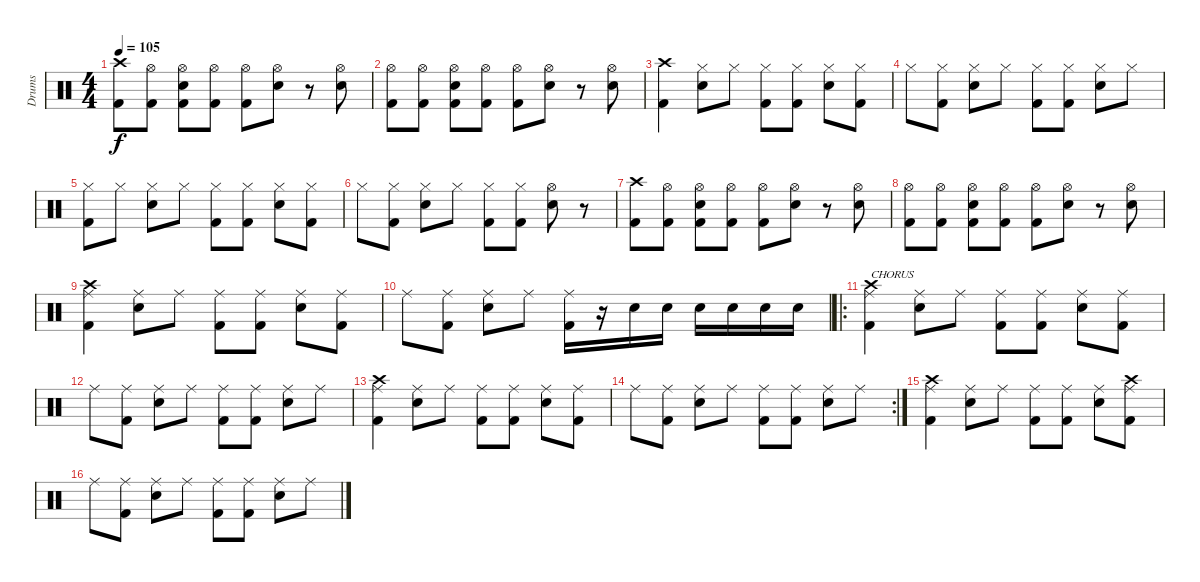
\track ("Drums" "Drums") {instrument percussion}
\staff {score}
\articulation defaults
\ts (4 4)
\tempo 105
\clef neutral
\ks c
("Crash high (hit)" "Kick (hit) 2").8{dy f} ("Hi-Hat (open)" "Kick (hit) 2").8 ("Hi-Hat (open)" "Electric Snare (hit)" "Kick (hit) 2").8 ("Hi-Hat (open)" "Kick (hit) 2").8 ("Hi-Hat (open)" "Kick (hit) 2").8 ("Hi-Hat (open)" "Electric Snare (hit)").8 r.8 ("Hi-Hat (open)" "Electric Snare (hit)").8 |
("Hi-Hat (open)" "Kick (hit) 2").8 ("Hi-Hat (open)" "Kick (hit) 2").8 ("Hi-Hat (open)" "Electric Snare (hit)" "Kick (hit) 2").8 ("Hi-Hat (open)" "Kick (hit) 2").8 ("Hi-Hat (open)" "Kick (hit) 2").8 ("Hi-Hat (open)" "Electric Snare (hit)").8 r.8 ("Hi-Hat (open)" "Electric Snare (hit)").8 |
("Crash high (hit)" "Kick (hit) 2").4 ("Hi-Hat (closed)" "Electric Snare (hit)").8 "Hi-Hat (closed)".8 ("Hi-Hat (closed)" "Kick (hit) 2").8 ("Hi-Hat (closed)" "Kick (hit) 2").8 ("Hi-Hat (closed)" "Electric Snare (hit)").8 ("Hi-Hat (closed)" "Kick (hit) 2").8 |
"Hi-Hat (closed)".8 ("Hi-Hat (closed)" "Kick (hit) 2").8 ("Hi-Hat (closed)" "Electric Snare (hit)").8 "Hi-Hat (closed)".8 ("Hi-Hat (closed)" "Kick (hit) 2").8 ("Hi-Hat (closed)" "Kick (hit) 2").8 ("Hi-Hat (closed)" "Electric Snare (hit)").8 "Hi-Hat (closed)".8 |
("Hi-Hat (closed)" "Kick (hit) 2").8 "Hi-Hat (closed)".8 ("Hi-Hat (closed)" "Electric Snare (hit)").8 "Hi-Hat (closed)".8 ("Hi-Hat (closed)" "Kick (hit) 2").8 ("Hi-Hat (closed)" "Kick (hit) 2").8 ("Hi-Hat (closed)" "Electric Snare (hit)").8 ("Hi-Hat (closed)" "Kick (hit) 2").8 |
"Hi-Hat (closed)".8 ("Hi-Hat (closed)" "Kick (hit) 2").8 ("Hi-Hat (closed)" "Electric Snare (hit)").8 "Hi-Hat (closed)".8 ("Hi-Hat (closed)" "Kick (hit) 2").8 ("Hi-Hat (closed)" "Kick (hit) 2").8 ("Hi-Hat (open)" "Electric Snare (hit)").8 r.8 |
("Crash high (hit)" "Kick (hit) 2").8 ("Hi-Hat (open)" "Kick (hit) 2").8 ("Hi-Hat (open)" "Electric Snare (hit)" "Kick (hit) 2").8 ("Hi-Hat (open)" "Kick (hit) 2").8 ("Hi-Hat (open)" "Kick (hit) 2").8 ("Hi-Hat (open)" "Electric Snare (hit)").8 r.8 ("Hi-Hat (open)" "Electric Snare (hit)").8 |
("Hi-Hat (open)" "Kick (hit) 2").8 ("Hi-Hat (open)" "Kick (hit) 2").8 ("Hi-Hat (open)" "Electric Snare (hit)" "Kick (hit) 2").8 ("Hi-Hat (open)" "Kick (hit) 2").8 ("Hi-Hat (open)" "Kick (hit) 2").8 ("Hi-Hat (open)" "Electric Snare (hit)").8 r.8 ("Hi-Hat (open)" "Electric Snare (hit)").8 |
("Ride (middle)" "Crash high (hit)" "Kick (hit) 2").4 ("Ride (middle)" "Electric Snare (hit)").8 "Ride (middle)".8 ("Ride (middle)" "Kick (hit) 2").8 ("Ride (middle)" "Kick (hit) 2").8 ("Ride (middle)" "Electric Snare (hit)").8 ("Ride (middle)" "Kick (hit) 2").8 |
"Ride (middle)".8 ("Ride (middle)" "Kick (hit) 2").8 ("Ride (middle)" "Electric Snare (hit)").8 "Ride (middle)".8 ("Ride (middle)" "Kick (hit) 2").16 r.16 "Electric Snare (hit)".16 "Electric Snare (hit)".16 "Electric Snare (hit)".16 "Electric Snare (hit)".16 "Electric Snare (hit)".16 "Electric Snare (hit)".16 |
\ro
("Ride (middle)" "Crash high (hit)" "Kick (hit) 2").4{txt "CHORUS"} ("Ride (middle)" "Electric Snare (hit)").8 "Ride (middle)".8 ("Ride (middle)" "Kick (hit) 2").8 ("Ride (middle)" "Kick (hit) 2").8 ("Ride (middle)" "Electric Snare (hit)").8 ("Ride (middle)" "Kick (hit) 2").8 |
"Ride (middle)".8 ("Ride (middle)" "Kick (hit) 2").8 ("Ride (middle)" "Electric Snare (hit)").8 "Ride (middle)".8 ("Ride (middle)" "Kick (hit) 2").8 ("Ride (middle)" "Kick (hit) 2").8 ("Ride (middle)" "Electric Snare (hit)").8 "Ride (middle)".8 |
("Ride (middle)" "Crash high (hit)" "Kick (hit) 2").4 ("Ride (middle)" "Electric Snare (hit)").8 "Ride (middle)".8 ("Ride (middle)" "Kick (hit) 2").8 ("Ride (middle)" "Kick (hit) 2").8 ("Ride (middle)" "Electric Snare (hit)").8 ("Ride (middle)" "Kick (hit) 2").8 |
\rc 2 "Ride (middle)".8
("Ride (middle)" "Kick (hit) 2").8 ("Ride (middle)" "Electric Snare (hit)").8 "Ride (middle)".8 ("Ride (middle)" "Kick (hit) 2").8 ("Ride (middle)" "Kick (hit) 2").8 ("Ride (middle)" "Electric Snare (hit)").8 "Ride (middle)".8 |
("Ride (middle)" "Crash high (hit)" "Kick (hit) 2").4 ("Ride (middle)" "Electric Snare (hit)").8 "Ride (middle)".8 ("Ride (middle)" "Kick (hit) 2").8 ("Ride (middle)" "Kick (hit) 2").8 ("Ride (middle)" "Electric Snare (hit)").8 ("Ride (middle)" "Crash high (hit)" "Kick (hit) 2").8 |
"Ride (middle)".8 ("Ride (middle)" "Kick (hit) 2").8 ("Ride (middle)" "Electric Snare (hit)").8 "Ride (middle)".8 ("Ride (middle)" "Kick (hit) 2").8 ("Ride (middle)" "Kick (hit) 2").8 ("Ride (middle)" "Electric Snare (hit)").8 "Ride (middle)".8
